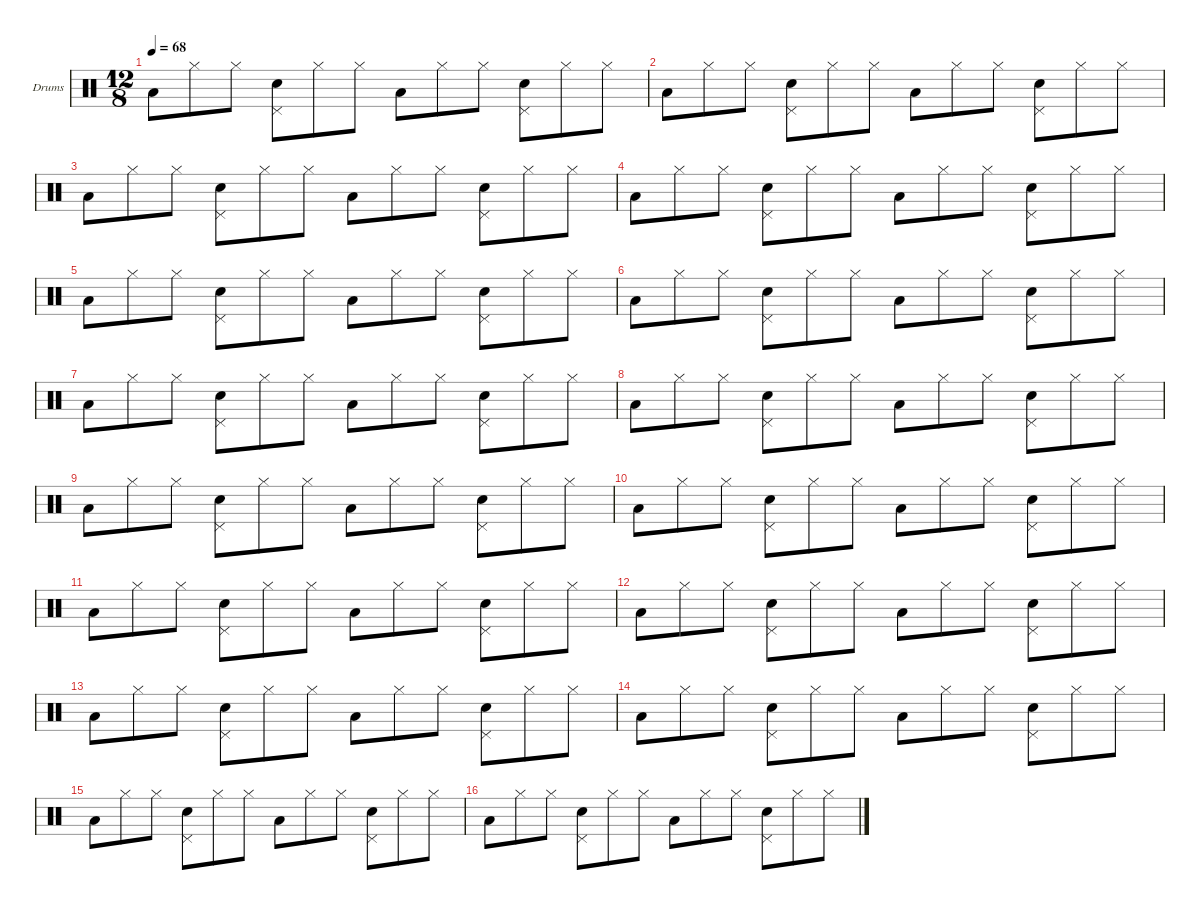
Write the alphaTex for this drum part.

\hideDynamics
\bracketExtendMode nobrackets
\firstSystemTrackNameOrientation horizontal
\otherSystemsTrackNameOrientation horizontal
\track ("Drums" "Drums") {instrument percussion}
\staff {score}
\articulation defaults
\ts (12 8)
\tempo 68
\clef neutral
\ks c "Low Tom (hit)".8{dy f} "Hi-Hat (closed)".8 "Hi-Hat (closed)".8
("Pedal Hi-Hat (hit)" "Snare (hit) 2").8 "Hi-Hat (closed)".8 "Hi-Hat (closed)".8 "Low Tom (hit)".8 "Hi-Hat (closed)".8 "Hi-Hat (closed)".8 ("Pedal Hi-Hat (hit)" "Snare (hit) 2").8 "Hi-Hat (closed)".8 "Hi-Hat (closed)".8 |
"Low Tom (hit)".8 "Hi-Hat (closed)".8 "Hi-Hat (closed)".8 ("Pedal Hi-Hat (hit)" "Snare (hit) 2").8 "Hi-Hat (closed)".8 "Hi-Hat (closed)".8 "Low Tom (hit)".8 "Hi-Hat (closed)".8 "Hi-Hat (closed)".8 ("Pedal Hi-Hat (hit)" "Snare (hit) 2").8 "Hi-Hat (closed)".8 "Hi-Hat (closed)".8 |
"Low Tom (hit)".8 "Hi-Hat (closed)".8 "Hi-Hat (closed)".8 ("Pedal Hi-Hat (hit)" "Snare (hit) 2").8 "Hi-Hat (closed)".8 "Hi-Hat (closed)".8 "Low Tom (hit)".8 "Hi-Hat (closed)".8 "Hi-Hat (closed)".8 ("Pedal Hi-Hat (hit)" "Snare (hit) 2").8 "Hi-Hat (closed)".8 "Hi-Hat (closed)".8 |
"Low Tom (hit)".8 "Hi-Hat (closed)".8 "Hi-Hat (closed)".8 ("Pedal Hi-Hat (hit)" "Snare (hit) 2").8 "Hi-Hat (closed)".8 "Hi-Hat (closed)".8 "Low Tom (hit)".8 "Hi-Hat (closed)".8 "Hi-Hat (closed)".8 ("Pedal Hi-Hat (hit)" "Snare (hit) 2").8 "Hi-Hat (closed)".8 "Hi-Hat (closed)".8 |
"Low Tom (hit)".8 "Hi-Hat (closed)".8 "Hi-Hat (closed)".8 ("Pedal Hi-Hat (hit)" "Snare (hit) 2").8 "Hi-Hat (closed)".8 "Hi-Hat (closed)".8 "Low Tom (hit)".8 "Hi-Hat (closed)".8 "Hi-Hat (closed)".8 ("Pedal Hi-Hat (hit)" "Snare (hit) 2").8 "Hi-Hat (closed)".8 "Hi-Hat (closed)".8 |
"Low Tom (hit)".8 "Hi-Hat (closed)".8 "Hi-Hat (closed)".8 ("Pedal Hi-Hat (hit)" "Snare (hit) 2").8 "Hi-Hat (closed)".8 "Hi-Hat (closed)".8 "Low Tom (hit)".8 "Hi-Hat (closed)".8 "Hi-Hat (closed)".8 ("Pedal Hi-Hat (hit)" "Snare (hit) 2").8 "Hi-Hat (closed)".8 "Hi-Hat (closed)".8 |
"Low Tom (hit)".8 "Hi-Hat (closed)".8 "Hi-Hat (closed)".8 ("Pedal Hi-Hat (hit)" "Snare (hit) 2").8 "Hi-Hat (closed)".8 "Hi-Hat (closed)".8 "Low Tom (hit)".8 "Hi-Hat (closed)".8 "Hi-Hat (closed)".8 ("Pedal Hi-Hat (hit)" "Snare (hit) 2").8 "Hi-Hat (closed)".8 "Hi-Hat (closed)".8 |
"Low Tom (hit)".8 "Hi-Hat (closed)".8 "Hi-Hat (closed)".8 ("Pedal Hi-Hat (hit)" "Snare (hit) 2").8 "Hi-Hat (closed)".8 "Hi-Hat (closed)".8 "Low Tom (hit)".8 "Hi-Hat (closed)".8 "Hi-Hat (closed)".8 ("Pedal Hi-Hat (hit)" "Snare (hit) 2").8 "Hi-Hat (closed)".8 "Hi-Hat (closed)".8 |
"Low Tom (hit)".8 "Hi-Hat (closed)".8 "Hi-Hat (closed)".8 ("Pedal Hi-Hat (hit)" "Snare (hit) 2").8 "Hi-Hat (closed)".8 "Hi-Hat (closed)".8 "Low Tom (hit)".8 "Hi-Hat (closed)".8 "Hi-Hat (closed)".8 ("Pedal Hi-Hat (hit)" "Snare (hit) 2").8 "Hi-Hat (closed)".8 "Hi-Hat (closed)".8 |
"Low Tom (hit)".8 "Hi-Hat (closed)".8 "Hi-Hat (closed)".8 ("Pedal Hi-Hat (hit)" "Snare (hit) 2").8 "Hi-Hat (closed)".8 "Hi-Hat (closed)".8 "Low Tom (hit)".8 "Hi-Hat (closed)".8 "Hi-Hat (closed)".8 ("Pedal Hi-Hat (hit)" "Snare (hit) 2").8 "Hi-Hat (closed)".8 "Hi-Hat (closed)".8 |
"Low Tom (hit)".8 "Hi-Hat (closed)".8 "Hi-Hat (closed)".8 ("Pedal Hi-Hat (hit)" "Snare (hit) 2").8 "Hi-Hat (closed)".8 "Hi-Hat (closed)".8 "Low Tom (hit)".8 "Hi-Hat (closed)".8 "Hi-Hat (closed)".8 ("Pedal Hi-Hat (hit)" "Snare (hit) 2").8 "Hi-Hat (closed)".8 "Hi-Hat (closed)".8 |
"Low Tom (hit)".8 "Hi-Hat (closed)".8 "Hi-Hat (closed)".8 ("Pedal Hi-Hat (hit)" "Snare (hit) 2").8 "Hi-Hat (closed)".8 "Hi-Hat (closed)".8 "Low Tom (hit)".8 "Hi-Hat (closed)".8 "Hi-Hat (closed)".8 ("Pedal Hi-Hat (hit)" "Snare (hit) 2").8 "Hi-Hat (closed)".8 "Hi-Hat (closed)".8 |
"Low Tom (hit)".8 "Hi-Hat (closed)".8 "Hi-Hat (closed)".8 ("Pedal Hi-Hat (hit)" "Snare (hit) 2").8 "Hi-Hat (closed)".8 "Hi-Hat (closed)".8 "Low Tom (hit)".8 "Hi-Hat (closed)".8 "Hi-Hat (closed)".8 ("Pedal Hi-Hat (hit)" "Snare (hit) 2").8 "Hi-Hat (closed)".8 "Hi-Hat (closed)".8 |
"Low Tom (hit)".8 "Hi-Hat (closed)".8 "Hi-Hat (closed)".8 ("Pedal Hi-Hat (hit)" "Snare (hit) 2").8 "Hi-Hat (closed)".8 "Hi-Hat (closed)".8 "Low Tom (hit)".8 "Hi-Hat (closed)".8 "Hi-Hat (closed)".8 ("Pedal Hi-Hat (hit)" "Snare (hit) 2").8 "Hi-Hat (closed)".8 "Hi-Hat (closed)".8 |
"Low Tom (hit)".8 "Hi-Hat (closed)".8 "Hi-Hat (closed)".8 ("Pedal Hi-Hat (hit)" "Snare (hit) 2").8 "Hi-Hat (closed)".8 "Hi-Hat (closed)".8 "Low Tom (hit)".8 "Hi-Hat (closed)".8 "Hi-Hat (closed)".8 ("Pedal Hi-Hat (hit)" "Snare (hit) 2").8 "Hi-Hat (closed)".8 "Hi-Hat (closed)".8 |
"Low Tom (hit)".8 "Hi-Hat (closed)".8 "Hi-Hat (closed)".8 ("Pedal Hi-Hat (hit)" "Snare (hit) 2").8 "Hi-Hat (closed)".8 "Hi-Hat (closed)".8 "Low Tom (hit)".8 "Hi-Hat (closed)".8 "Hi-Hat (closed)".8 ("Pedal Hi-Hat (hit)" "Snare (hit) 2").8 "Hi-Hat (closed)".8 "Hi-Hat (closed)".8
